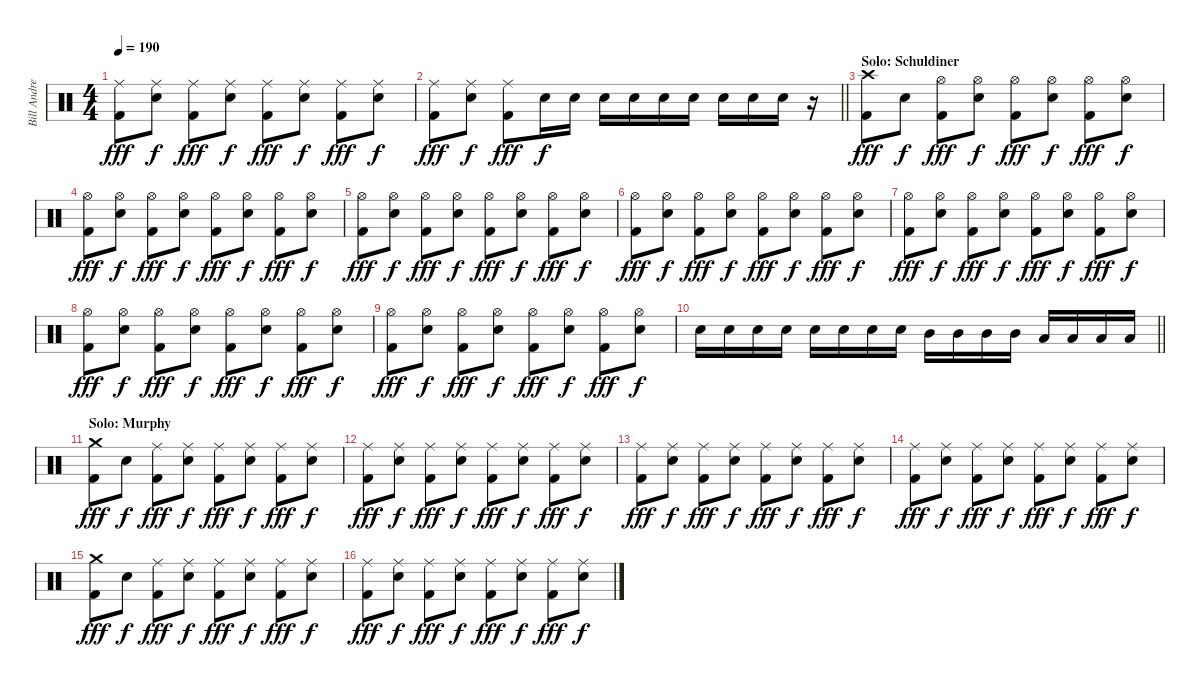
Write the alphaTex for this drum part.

\track ("Bill Andrews" "Bill Andre") {instrument percussion}
\staff {score}
\articulation defaults
\ts (4 4)
\tempo 190
\clef neutral
\ks c
("Ride (middle)" "Kick (hit) 2").8{dy fff} ("Ride (middle)" "Electric Snare (hit)").8{dy f} ("Ride (middle)" "Kick (hit) 2").8{dy fff} ("Ride (middle)" "Electric Snare (hit)").8{dy f} ("Ride (middle)" "Kick (hit) 2").8{dy fff} ("Ride (middle)" "Electric Snare (hit)").8{dy f} ("Ride (middle)" "Kick (hit) 2").8{dy fff} ("Ride (middle)" "Electric Snare (hit)").8{dy f} |
\barLineRight lightlight
("Ride (middle)" "Kick (hit) 2").8{dy fff} ("Ride (middle)" "Electric Snare (hit)").8{dy f} ("Ride (middle)" "Kick (hit) 2").8{dy fff} "Electric Snare (hit)".16{dy f} "Electric Snare (hit)".16 "Electric Snare (hit)".16 "Electric Snare (hit)".16 "Electric Snare (hit)".16 "Electric Snare (hit)".16 "Electric Snare (hit)".16 "Electric Snare (hit)".16 "Electric Snare (hit)".16 r.16 |
\section ("" "Solo: Schuldiner")
("Crash high (hit)" "Kick (hit) 2").8{dy fff} "Electric Snare (hit)".8{dy f} ("Hi-Hat (open)" "Kick (hit) 2").8{dy fff} ("Hi-Hat (open)" "Electric Snare (hit)").8{dy f} ("Hi-Hat (open)" "Kick (hit) 2").8{dy fff} ("Hi-Hat (open)" "Electric Snare (hit)").8{dy f} ("Hi-Hat (open)" "Kick (hit) 2").8{dy fff} ("Hi-Hat (open)" "Electric Snare (hit)").8{dy f} |
("Hi-Hat (open)" "Kick (hit) 2").8{dy fff} ("Hi-Hat (open)" "Electric Snare (hit)").8{dy f} ("Hi-Hat (open)" "Kick (hit) 2").8{dy fff} ("Hi-Hat (open)" "Electric Snare (hit)").8{dy f} ("Hi-Hat (open)" "Kick (hit) 2").8{dy fff} ("Hi-Hat (open)" "Electric Snare (hit)").8{dy f} ("Hi-Hat (open)" "Kick (hit) 2").8{dy fff} ("Hi-Hat (open)" "Electric Snare (hit)").8{dy f} |
("Hi-Hat (open)" "Kick (hit) 2").8{dy fff} ("Hi-Hat (open)" "Electric Snare (hit)").8{dy f} ("Hi-Hat (open)" "Kick (hit) 2").8{dy fff} ("Hi-Hat (open)" "Electric Snare (hit)").8{dy f} ("Hi-Hat (open)" "Kick (hit) 2").8{dy fff} ("Hi-Hat (open)" "Electric Snare (hit)").8{dy f} ("Hi-Hat (open)" "Kick (hit) 2").8{dy fff} ("Hi-Hat (open)" "Electric Snare (hit)").8{dy f} |
("Hi-Hat (open)" "Kick (hit) 2").8{dy fff} ("Hi-Hat (open)" "Electric Snare (hit)").8{dy f} ("Hi-Hat (open)" "Kick (hit) 2").8{dy fff} ("Hi-Hat (open)" "Electric Snare (hit)").8{dy f} ("Hi-Hat (open)" "Kick (hit) 2").8{dy fff} ("Hi-Hat (open)" "Electric Snare (hit)").8{dy f} ("Hi-Hat (open)" "Kick (hit) 2").8{dy fff} ("Hi-Hat (open)" "Electric Snare (hit)").8{dy f} |
("Hi-Hat (open)" "Kick (hit) 2").8{dy fff} ("Hi-Hat (open)" "Electric Snare (hit)").8{dy f} ("Hi-Hat (open)" "Kick (hit) 2").8{dy fff} ("Hi-Hat (open)" "Electric Snare (hit)").8{dy f} ("Hi-Hat (open)" "Kick (hit) 2").8{dy fff} ("Hi-Hat (open)" "Electric Snare (hit)").8{dy f} ("Hi-Hat (open)" "Kick (hit) 2").8{dy fff} ("Hi-Hat (open)" "Electric Snare (hit)").8{dy f} |
("Hi-Hat (open)" "Kick (hit) 2").8{dy fff} ("Hi-Hat (open)" "Electric Snare (hit)").8{dy f} ("Hi-Hat (open)" "Kick (hit) 2").8{dy fff} ("Hi-Hat (open)" "Electric Snare (hit)").8{dy f} ("Hi-Hat (open)" "Kick (hit) 2").8{dy fff} ("Hi-Hat (open)" "Electric Snare (hit)").8{dy f} ("Hi-Hat (open)" "Kick (hit) 2").8{dy fff} ("Hi-Hat (open)" "Electric Snare (hit)").8{dy f} |
("Hi-Hat (open)" "Kick (hit) 2").8{dy fff} ("Hi-Hat (open)" "Electric Snare (hit)").8{dy f} ("Hi-Hat (open)" "Kick (hit) 2").8{dy fff} ("Hi-Hat (open)" "Electric Snare (hit)").8{dy f} ("Hi-Hat (open)" "Kick (hit) 2").8{dy fff} ("Hi-Hat (open)" "Electric Snare (hit)").8{dy f} ("Hi-Hat (open)" "Kick (hit) 2").8{dy fff} ("Hi-Hat (open)" "Electric Snare (hit)").8{dy f} |
\barLineRight lightlight "Electric Snare (hit)".16 "Electric Snare (hit)".16 "Electric Snare (hit)".16 "Electric Snare (hit)".16 "Electric Snare (hit)".16 "Electric Snare (hit)".16 "Electric Snare (hit)".16 "Electric Snare (hit)".16 "Mid Tom (hit)".16 "Mid Tom (hit)".16 "Mid Tom (hit)".16 "Mid Tom (hit)".16 "Low Tom (hit)".16 "Low Tom (hit)".16 "Low Tom (hit)".16 "Low Tom (hit)".16
|
\section ("" "Solo: Murphy")
("Crash medium (hit)" "Kick (hit) 2").8{dy fff} "Electric Snare (hit)".8{dy f} ("Ride (middle)" "Kick (hit) 2").8{dy fff} ("Ride (middle)" "Electric Snare (hit)").8{dy f} ("Ride (middle)" "Kick (hit) 2").8{dy fff} ("Ride (middle)" "Electric Snare (hit)").8{dy f} ("Ride (middle)" "Kick (hit) 2").8{dy fff} ("Ride (middle)" "Electric Snare (hit)").8{dy f} |
("Ride (middle)" "Kick (hit) 2").8{dy fff} ("Ride (middle)" "Electric Snare (hit)").8{dy f} ("Ride (middle)" "Kick (hit) 2").8{dy fff} ("Ride (middle)" "Electric Snare (hit)").8{dy f} ("Ride (middle)" "Kick (hit) 2").8{dy fff} ("Ride (middle)" "Electric Snare (hit)").8{dy f} ("Ride (middle)" "Kick (hit) 2").8{dy fff} ("Ride (middle)" "Electric Snare (hit)").8{dy f} |
("Ride (middle)" "Kick (hit) 2").8{dy fff} ("Ride (middle)" "Electric Snare (hit)").8{dy f} ("Ride (middle)" "Kick (hit) 2").8{dy fff} ("Ride (middle)" "Electric Snare (hit)").8{dy f} ("Ride (middle)" "Kick (hit) 2").8{dy fff} ("Ride (middle)" "Electric Snare (hit)").8{dy f} ("Ride (middle)" "Kick (hit) 2").8{dy fff} ("Ride (middle)" "Electric Snare (hit)").8{dy f} |
("Ride (middle)" "Kick (hit) 2").8{dy fff} ("Ride (middle)" "Electric Snare (hit)").8{dy f} ("Ride (middle)" "Kick (hit) 2").8{dy fff} ("Ride (middle)" "Electric Snare (hit)").8{dy f} ("Ride (middle)" "Kick (hit) 2").8{dy fff} ("Ride (middle)" "Electric Snare (hit)").8{dy f} ("Ride (middle)" "Kick (hit) 2").8{dy fff} ("Ride (middle)" "Electric Snare (hit)").8{dy f} |
("Crash medium (hit)" "Kick (hit) 2").8{dy fff} "Electric Snare (hit)".8{dy f} ("Ride (middle)" "Kick (hit) 2").8{dy fff} ("Ride (middle)" "Electric Snare (hit)").8{dy f} ("Ride (middle)" "Kick (hit) 2").8{dy fff} ("Ride (middle)" "Electric Snare (hit)").8{dy f} ("Ride (middle)" "Kick (hit) 2").8{dy fff} ("Ride (middle)" "Electric Snare (hit)").8{dy f} |
("Ride (middle)" "Kick (hit) 2").8{dy fff} ("Ride (middle)" "Electric Snare (hit)").8{dy f} ("Ride (middle)" "Kick (hit) 2").8{dy fff} ("Ride (middle)" "Electric Snare (hit)").8{dy f} ("Ride (middle)" "Kick (hit) 2").8{dy fff} ("Ride (middle)" "Electric Snare (hit)").8{dy f} ("Ride (middle)" "Kick (hit) 2").8{dy fff} ("Ride (middle)" "Electric Snare (hit)").8{dy f}
